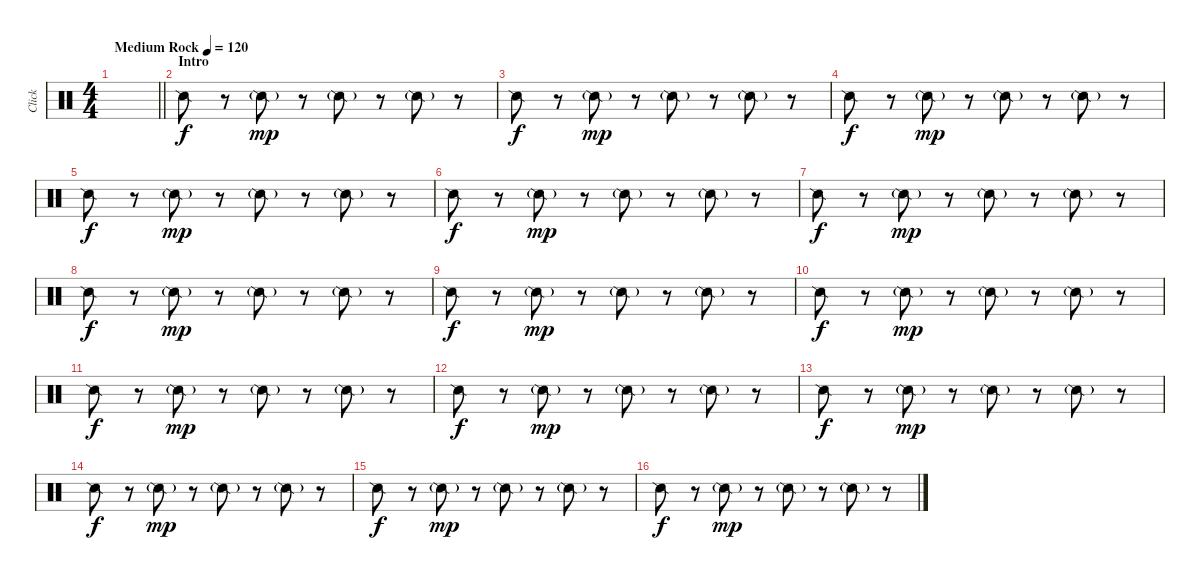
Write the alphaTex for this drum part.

\track ("Click" "Click") {mute instrument percussion}
\staff {score}
\articulation defaults
\ts (4 4)
\tempo (120 "Medium Rock")
\clef neutral
\barLineRight lightlight
\ks c
|
\section ("" "Intro")
"Snare (side stick) 2".8 r.8 "Snare (side stick) 2"{g}.8{dy mp} r.8 "Snare (side stick) 2"{g}.8 r.8 "Snare (side stick) 2"{g}.8 r.8 |
"Snare (side stick) 2".8{dy f} r.8 "Snare (side stick) 2"{g}.8{dy mp} r.8 "Snare (side stick) 2"{g}.8 r.8 "Snare (side stick) 2"{g}.8 r.8 |
"Snare (side stick) 2".8{dy f} r.8 "Snare (side stick) 2"{g}.8{dy mp} r.8 "Snare (side stick) 2"{g}.8 r.8 "Snare (side stick) 2"{g}.8 r.8 |
"Snare (side stick) 2".8{dy f} r.8 "Snare (side stick) 2"{g}.8{dy mp} r.8 "Snare (side stick) 2"{g}.8 r.8 "Snare (side stick) 2"{g}.8 r.8 |
"Snare (side stick) 2".8{dy f} r.8 "Snare (side stick) 2"{g}.8{dy mp} r.8 "Snare (side stick) 2"{g}.8 r.8 "Snare (side stick) 2"{g}.8 r.8 |
"Snare (side stick) 2".8{dy f} r.8 "Snare (side stick) 2"{g}.8{dy mp} r.8 "Snare (side stick) 2"{g}.8 r.8 "Snare (side stick) 2"{g}.8 r.8 |
"Snare (side stick) 2".8{dy f} r.8 "Snare (side stick) 2"{g}.8{dy mp} r.8 "Snare (side stick) 2"{g}.8 r.8 "Snare (side stick) 2"{g}.8 r.8 |
"Snare (side stick) 2".8{dy f} r.8 "Snare (side stick) 2"{g}.8{dy mp} r.8 "Snare (side stick) 2"{g}.8 r.8 "Snare (side stick) 2"{g}.8 r.8 |
"Snare (side stick) 2".8{dy f} r.8 "Snare (side stick) 2"{g}.8{dy mp} r.8 "Snare (side stick) 2"{g}.8 r.8 "Snare (side stick) 2"{g}.8 r.8 |
"Snare (side stick) 2".8{dy f} r.8 "Snare (side stick) 2"{g}.8{dy mp} r.8 "Snare (side stick) 2"{g}.8 r.8 "Snare (side stick) 2"{g}.8 r.8 |
"Snare (side stick) 2".8{dy f} r.8 "Snare (side stick) 2"{g}.8{dy mp} r.8 "Snare (side stick) 2"{g}.8 r.8 "Snare (side stick) 2"{g}.8 r.8 |
"Snare (side stick) 2".8{dy f} r.8 "Snare (side stick) 2"{g}.8{dy mp} r.8 "Snare (side stick) 2"{g}.8 r.8 "Snare (side stick) 2"{g}.8 r.8 |
"Snare (side stick) 2".8{dy f} r.8 "Snare (side stick) 2"{g}.8{dy mp} r.8 "Snare (side stick) 2"{g}.8 r.8 "Snare (side stick) 2"{g}.8 r.8 |
"Snare (side stick) 2".8{dy f} r.8 "Snare (side stick) 2"{g}.8{dy mp} r.8 "Snare (side stick) 2"{g}.8 r.8 "Snare (side stick) 2"{g}.8 r.8 |
"Snare (side stick) 2".8{dy f} r.8 "Snare (side stick) 2"{g}.8{dy mp} r.8 "Snare (side stick) 2"{g}.8 r.8 "Snare (side stick) 2"{g}.8 r.8
